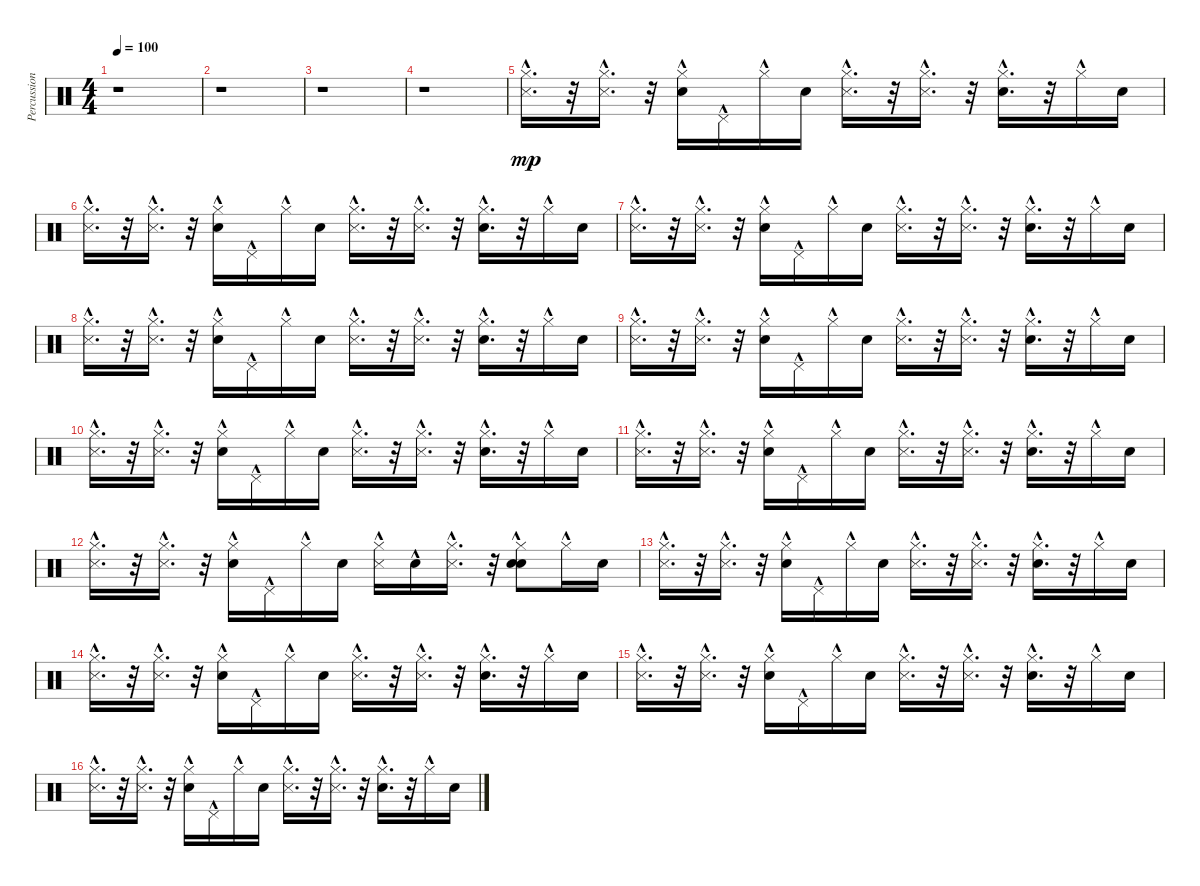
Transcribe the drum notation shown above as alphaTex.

\track ("Percussion" "Percussion") {instrument percussion}
\staff {score}
\articulation defaults
\ts (4 4)
\tempo 100
\clef neutral
\ks c
r.1{dy mp} |
r.1 |
r.1 |
r.1 |
("Hi-Hat (closed)"{hac} "Metronome (hit)"{hac}).16{d} r.32 ("Hi-Hat (closed)"{hac} "Metronome (hit)").16{d} r.32 ("Hi-Hat (closed)"{hac} "Metronome (bell)").16 "Pedal Hi-Hat (hit)"{hac}.16 "Hi-Hat (closed)"{hac}.16 "Metronome (bell)".16 ("Metronome (hit)"{hac} "Hi-Hat (closed)"{hac}).16{d} r.32 ("Metronome (hit)" "Hi-Hat (closed)"{hac}).16{d} r.32 ("Metronome (bell)" "Hi-Hat (closed)"{hac}).16{d} r.32 "Hi-Hat (closed)"{hac}.16 "Metronome (bell)".16 |
("Hi-Hat (closed)"{hac} "Metronome (hit)"{hac}).16{d} r.32 ("Hi-Hat (closed)"{hac} "Metronome (hit)").16{d} r.32 ("Hi-Hat (closed)"{hac} "Metronome (bell)").16 "Pedal Hi-Hat (hit)"{hac}.16 "Hi-Hat (closed)"{hac}.16 "Metronome (bell)".16 ("Metronome (hit)"{hac} "Hi-Hat (closed)"{hac}).16{d} r.32 ("Metronome (hit)" "Hi-Hat (closed)"{hac}).16{d} r.32 ("Metronome (bell)" "Hi-Hat (closed)"{hac}).16{d} r.32 "Hi-Hat (closed)"{hac}.16 "Metronome (bell)".16 |
("Hi-Hat (closed)"{hac} "Metronome (hit)"{hac}).16{d} r.32 ("Hi-Hat (closed)"{hac} "Metronome (hit)").16{d} r.32 ("Hi-Hat (closed)"{hac} "Metronome (bell)").16 "Pedal Hi-Hat (hit)"{hac}.16 "Hi-Hat (closed)"{hac}.16 "Metronome (bell)".16 ("Metronome (hit)"{hac} "Hi-Hat (closed)"{hac}).16{d} r.32 ("Metronome (hit)" "Hi-Hat (closed)"{hac}).16{d} r.32 ("Metronome (bell)" "Hi-Hat (closed)"{hac}).16{d} r.32 "Hi-Hat (closed)"{hac}.16 "Metronome (bell)".16 |
("Hi-Hat (closed)"{hac} "Metronome (hit)"{hac}).16{d} r.32 ("Hi-Hat (closed)"{hac} "Metronome (hit)").16{d} r.32 ("Hi-Hat (closed)"{hac} "Metronome (bell)").16 "Pedal Hi-Hat (hit)"{hac}.16 "Hi-Hat (closed)"{hac}.16 "Metronome (bell)".16 ("Metronome (hit)"{hac} "Hi-Hat (closed)"{hac}).16{d} r.32 ("Metronome (hit)" "Hi-Hat (closed)"{hac}).16{d} r.32 ("Metronome (bell)" "Hi-Hat (closed)"{hac}).16{d} r.32 "Hi-Hat (closed)"{hac}.16 "Metronome (bell)".16 |
("Hi-Hat (closed)"{hac} "Metronome (hit)"{hac}).16{d} r.32 ("Hi-Hat (closed)"{hac} "Metronome (hit)").16{d} r.32 ("Hi-Hat (closed)"{hac} "Metronome (bell)").16 "Pedal Hi-Hat (hit)"{hac}.16 "Hi-Hat (closed)"{hac}.16 "Metronome (bell)".16 ("Metronome (hit)"{hac} "Hi-Hat (closed)"{hac}).16{d} r.32 ("Metronome (hit)" "Hi-Hat (closed)"{hac}).16{d} r.32 ("Metronome (bell)" "Hi-Hat (closed)"{hac}).16{d} r.32 "Hi-Hat (closed)"{hac}.16 "Metronome (bell)".16 |
("Hi-Hat (closed)"{hac} "Metronome (hit)"{hac}).16{d} r.32 ("Hi-Hat (closed)"{hac} "Metronome (hit)").16{d} r.32 ("Hi-Hat (closed)"{hac} "Metronome (bell)").16 "Pedal Hi-Hat (hit)"{hac}.16 "Hi-Hat (closed)"{hac}.16 "Metronome (bell)".16 ("Metronome (hit)"{hac} "Hi-Hat (closed)"{hac}).16{d} r.32 ("Metronome (hit)" "Hi-Hat (closed)"{hac}).16{d} r.32 ("Metronome (bell)" "Hi-Hat (closed)"{hac}).16{d} r.32 "Hi-Hat (closed)"{hac}.16 "Metronome (bell)".16 |
("Hi-Hat (closed)"{hac} "Metronome (hit)"{hac}).16{d} r.32 ("Hi-Hat (closed)"{hac} "Metronome (hit)").16{d} r.32 ("Hi-Hat (closed)"{hac} "Metronome (bell)").16 "Pedal Hi-Hat (hit)"{hac}.16 "Hi-Hat (closed)"{hac}.16 "Metronome (bell)".16 ("Metronome (hit)"{hac} "Hi-Hat (closed)"{hac}).16{d} r.32 ("Metronome (hit)" "Hi-Hat (closed)"{hac}).16{d} r.32 ("Metronome (bell)" "Hi-Hat (closed)"{hac}).16{d} r.32 "Hi-Hat (closed)"{hac}.16 "Metronome (bell)".16 |
("Hi-Hat (closed)"{hac} "Metronome (hit)"{hac}).16{d} r.32 ("Hi-Hat (closed)"{hac} "Metronome (hit)").16{d} r.32 ("Hi-Hat (closed)"{hac} "Metronome (bell)").16 "Pedal Hi-Hat (hit)"{hac}.16 "Hi-Hat (closed)"{hac}.16 "Metronome (bell)".16 ("Metronome (hit)"{hac} "Hi-Hat (closed)"{hac}).16 "Metronome (bell)"{hac}.16 ("Metronome (hit)" "Hi-Hat (closed)"{hac}).16{d} r.32 ("Metronome (bell)" "Hi-Hat (closed)"{hac} "Metronome (bell)").8 "Hi-Hat (closed)"{hac}.16 "Metronome (bell)".16 |
("Hi-Hat (closed)"{hac} "Metronome (hit)"{hac}).16{d} r.32 ("Hi-Hat (closed)"{hac} "Metronome (hit)").16{d} r.32 ("Hi-Hat (closed)"{hac} "Metronome (bell)").16 "Pedal Hi-Hat (hit)"{hac}.16 "Hi-Hat (closed)"{hac}.16 "Metronome (bell)".16 ("Metronome (hit)"{hac} "Hi-Hat (closed)"{hac}).16{d} r.32 ("Metronome (hit)" "Hi-Hat (closed)"{hac}).16{d} r.32 ("Metronome (bell)" "Hi-Hat (closed)"{hac}).16{d} r.32 "Hi-Hat (closed)"{hac}.16 "Metronome (bell)".16 |
("Hi-Hat (closed)"{hac} "Metronome (hit)"{hac}).16{d} r.32 ("Hi-Hat (closed)"{hac} "Metronome (hit)").16{d} r.32 ("Hi-Hat (closed)"{hac} "Metronome (bell)").16 "Pedal Hi-Hat (hit)"{hac}.16 "Hi-Hat (closed)"{hac}.16 "Metronome (bell)".16 ("Metronome (hit)"{hac} "Hi-Hat (closed)"{hac}).16{d} r.32 ("Metronome (hit)" "Hi-Hat (closed)"{hac}).16{d} r.32 ("Metronome (bell)" "Hi-Hat (closed)"{hac}).16{d} r.32 "Hi-Hat (closed)"{hac}.16 "Metronome (bell)".16 |
("Hi-Hat (closed)"{hac} "Metronome (hit)"{hac}).16{d} r.32 ("Hi-Hat (closed)"{hac} "Metronome (hit)").16{d} r.32 ("Hi-Hat (closed)"{hac} "Metronome (bell)").16 "Pedal Hi-Hat (hit)"{hac}.16 "Hi-Hat (closed)"{hac}.16 "Metronome (bell)".16 ("Metronome (hit)"{hac} "Hi-Hat (closed)"{hac}).16{d} r.32 ("Metronome (hit)" "Hi-Hat (closed)"{hac}).16{d} r.32 ("Metronome (bell)" "Hi-Hat (closed)"{hac}).16{d} r.32 "Hi-Hat (closed)"{hac}.16 "Metronome (bell)".16 |
("Hi-Hat (closed)"{hac} "Metronome (hit)"{hac}).16{d} r.32 ("Hi-Hat (closed)"{hac} "Metronome (hit)").16{d} r.32 ("Hi-Hat (closed)"{hac} "Metronome (bell)").16 "Pedal Hi-Hat (hit)"{hac}.16 "Hi-Hat (closed)"{hac}.16 "Metronome (bell)".16 ("Metronome (hit)"{hac} "Hi-Hat (closed)"{hac}).16{d} r.32 ("Metronome (hit)" "Hi-Hat (closed)"{hac}).16{d} r.32 ("Metronome (bell)" "Hi-Hat (closed)"{hac}).16{d} r.32 "Hi-Hat (closed)"{hac}.16 "Metronome (bell)".16
